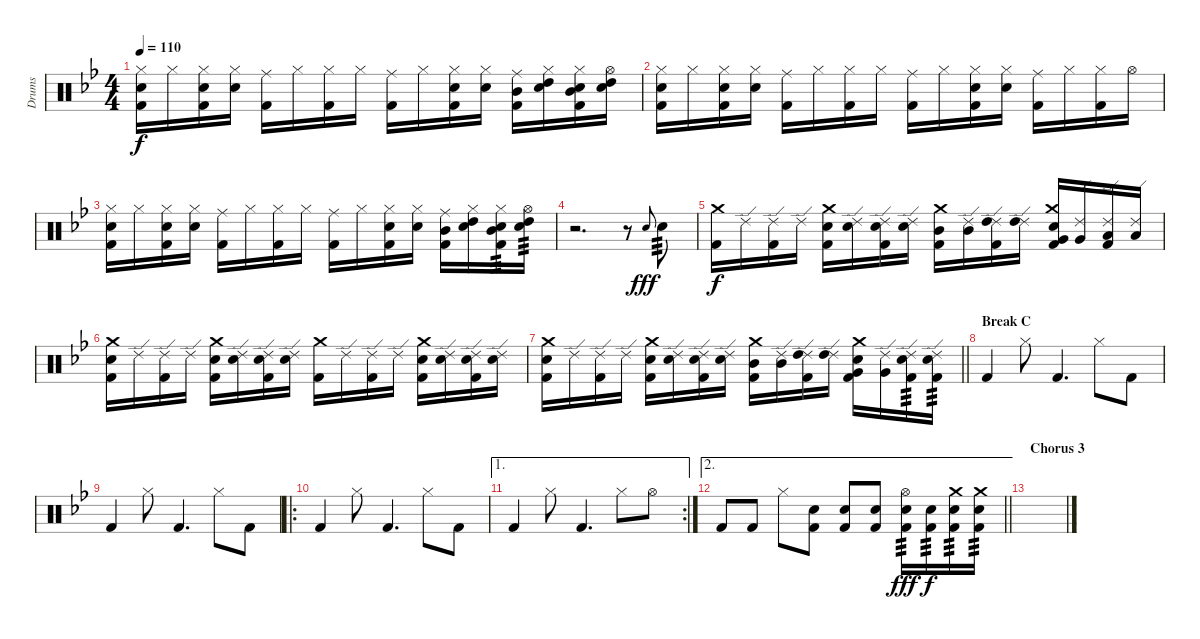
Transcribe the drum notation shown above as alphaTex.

\track ("Drums" "Drums") {instrument percussion}
\staff {score}
\articulation defaults
\ts (4 4)
\tempo 110
\clef neutral
\ks bb
("Hi-Hat (closed)" "Electric Snare (hit)" "Kick (hit) 2").16{dy f} "Hi-Hat (closed)".16 ("Hi-Hat (closed)" "Electric Snare (hit)" "Kick (hit) 2").16 ("Hi-Hat (closed)" "Electric Snare (hit)").16 ("Ride (middle)" "Kick (hit) 2").16 "Hi-Hat (closed)".16 ("Hi-Hat (closed)" "Kick (hit) 2").16 "Hi-Hat (closed)".16 ("Ride (middle)" "Kick (hit) 2").16 "Hi-Hat (closed)".16 ("Hi-Hat (closed)" "Electric Snare (hit)" "Kick (hit) 2").16 ("Hi-Hat (closed)" "Electric Snare (hit)").16 ("Ride (middle)" "Mid Tom (hit)" "Kick (hit) 2").16 ("Hi-Hat (closed)" "Electric Snare (hit)" "High Tom (hit)").16 ("Hi-Hat (closed)" "Electric Snare (hit)" "Mid Tom (hit)" "Kick (hit) 2").16 ("Hi-Hat (open)" "Electric Snare (hit)" "High Tom (hit)").16 |
("Hi-Hat (closed)" "Electric Snare (hit)" "Kick (hit) 2").16 "Hi-Hat (closed)".16 ("Hi-Hat (closed)" "Electric Snare (hit)" "Kick (hit) 2").16 ("Hi-Hat (closed)" "Electric Snare (hit)").16 ("Ride (middle)" "Kick (hit) 2").16 "Hi-Hat (closed)".16 ("Hi-Hat (closed)" "Kick (hit) 2").16 "Hi-Hat (closed)".16 ("Ride (middle)" "Kick (hit) 2").16 "Hi-Hat (closed)".16 ("Hi-Hat (closed)" "Electric Snare (hit)" "Kick (hit) 2").16 ("Hi-Hat (closed)" "Electric Snare (hit)").16 ("Ride (middle)" "Kick (hit) 2").16 "Hi-Hat (closed)".16 ("Hi-Hat (closed)" "Kick (hit) 2").16 "Hi-Hat (open)".16 |
("Hi-Hat (closed)" "Electric Snare (hit)" "Kick (hit) 2").16 "Hi-Hat (closed)".16 ("Hi-Hat (closed)" "Electric Snare (hit)" "Kick (hit) 2").16 ("Hi-Hat (closed)" "Electric Snare (hit)").16 ("Ride (middle)" "Kick (hit) 2").16 "Hi-Hat (closed)".16 ("Hi-Hat (closed)" "Kick (hit) 2").16 "Hi-Hat (closed)".16 ("Ride (middle)" "Kick (hit) 2").16 "Hi-Hat (closed)".16 ("Hi-Hat (closed)" "Electric Snare (hit)" "Kick (hit) 2").16 ("Hi-Hat (closed)" "Electric Snare (hit)").16 ("Ride (middle)" "Mid Tom (hit)" "Kick (hit) 2").16 ("Hi-Hat (closed)" "Electric Snare (hit)" "High Tom (hit)").16 ("Hi-Hat (closed)" "Electric Snare (hit)" "Mid Tom (hit)" "Kick (hit) 2").16{tp 3} ("Hi-Hat (open)" "Electric Snare (hit)" "High Tom (hit)").16{tp 3} |
r.2{d} r.8 "Electric Snare (hit)"{h}.8{gr onbeat dy fff} "Electric Snare (hit)".8{tp 3} |
("Crash medium (hit)" "Kick (hit) 2").16{dy f} "Ride (edge) 2".16 ("Ride (edge) 2" "Kick (hit) 2").16 "Ride (edge) 2".16 ("Crash medium (hit)" "Electric Snare (hit)" "Kick (hit) 2").16 ("Ride (edge) 2" "Electric Snare (hit)").16 ("Ride (edge) 2" "Electric Snare (hit)" "Kick (hit) 2").16 ("Ride (edge) 2" "Electric Snare (hit)").16 ("Crash medium (hit)" "Mid Tom (hit)" "Kick (hit) 2").16 ("Ride (edge) 2" "Mid Tom (hit)").16 ("Ride (edge) 2" "High Tom (hit)" "Kick (hit) 2").16 ("Ride (edge) 2" "High Tom (hit)").16 ("Crash medium (hit)" "Electric Snare (hit)" "Very Low Tom (hit)" "Kick (hit) 2").16 ("Ride (edge) 2" "Very Low Tom (hit)").16 ("Ride (edge) 2" "Low Floor Tom (hit)" "Kick (hit) 2").16 ("Ride (edge) 2" "Low Floor Tom (hit)").16 |
("Crash medium (hit)" "Electric Snare (hit)" "Kick (hit) 2").16 "Ride (edge) 2".16 ("Ride (edge) 2" "Kick (hit) 2").16 "Ride (edge) 2".16 ("Crash medium (hit)" "Electric Snare (hit)" "Kick (hit) 2").16 ("Ride (edge) 2" "Electric Snare (hit)").16 ("Ride (edge) 2" "Electric Snare (hit)" "Kick (hit) 2").16 ("Ride (edge) 2" "Electric Snare (hit)").16 ("Crash medium (hit)" "Kick (hit) 2").16 "Ride (edge) 2".16 ("Ride (edge) 2" "Kick (hit) 2").16 "Ride (edge) 2".16 ("Crash medium (hit)" "Electric Snare (hit)" "Kick (hit) 2").16 ("Ride (edge) 2" "Electric Snare (hit)").16 ("Ride (edge) 2" "Electric Snare (hit)" "Kick (hit) 2").16 ("Ride (edge) 2" "Electric Snare (hit)").16 |
\barLineRight lightlight
("Crash medium (hit)" "Electric Snare (hit)" "Kick (hit) 2").16 "Ride (edge) 2".16 ("Ride (edge) 2" "Kick (hit) 2").16 "Ride (edge) 2".16 ("Crash medium (hit)" "Electric Snare (hit)" "Kick (hit) 2").16 ("Ride (edge) 2" "Electric Snare (hit)").16 ("Ride (edge) 2" "Electric Snare (hit)" "Kick (hit) 2").16 ("Ride (edge) 2" "Electric Snare (hit)").16 ("Crash medium (hit)" "Mid Tom (hit)" "Kick (hit) 2").16 ("Ride (edge) 2" "Mid Tom (hit)").16 ("Ride (edge) 2" "High Tom (hit)" "Kick (hit) 2").16 ("Ride (edge) 2" "High Tom (hit)").16 ("Crash medium (hit)" "Electric Snare (hit)" "Very Low Tom (hit)" "Kick (hit) 2").16 ("Ride (edge) 2" "Very Low Tom (hit)").16 ("Ride (edge) 2" "Electric Snare (hit)" "Kick (hit) 2").16{tp 3} ("Ride (edge) 2" "Electric Snare (hit)" "Kick (hit) 2").16{tp 3} |
\section ("" "Break C")
"Kick (hit) 2".4 "Hi-Hat (closed)".8 "Kick (hit) 2".4{d} "Hi-Hat (closed)".8 "Kick (hit) 2".8 |
"Kick (hit) 2".4 "Hi-Hat (closed)".8 "Kick (hit) 2".4{d} "Hi-Hat (closed)".8 "Kick (hit) 2".8 |
\ro "Kick (hit) 2".4 "Hi-Hat (closed)".8 "Kick (hit) 2".4{d} "Hi-Hat (closed)".8 "Kick (hit) 2".8
|
\ae 1
\rc 2 "Kick (hit) 2".4 "Hi-Hat (closed)".8 "Kick (hit) 2".4{d} "Hi-Hat (closed)".8 "Hi-Hat (open)".8
|
\ae 2
\barLineRight lightlight "Kick (hit) 2".8 "Kick (hit) 2".8 "Hi-Hat (closed)".8
("Electric Snare (hit)" "Kick (hit) 2").8 ("Electric Snare (hit)" "Kick (hit) 2").8{volume 5} ("Electric Snare (hit)" "Kick (hit) 2").8{volume 7} ("Hi-Hat (open)" "Electric Snare (hit)" "Kick (hit) 2").16{tp 3 dy fff volume 9} ("Electric Snare (hit)" "Kick (hit) 2").16{tp 3 dy f volume 11} ("Crash medium (hit)" "Electric Snare (hit)" "Kick (hit) 2").16{tp 3 volume 13} ("Crash medium (hit)" "Electric Snare (hit)" "Kick (hit) 2").16{tp 3 volume 15} |
\section ("" "Chorus 3")
